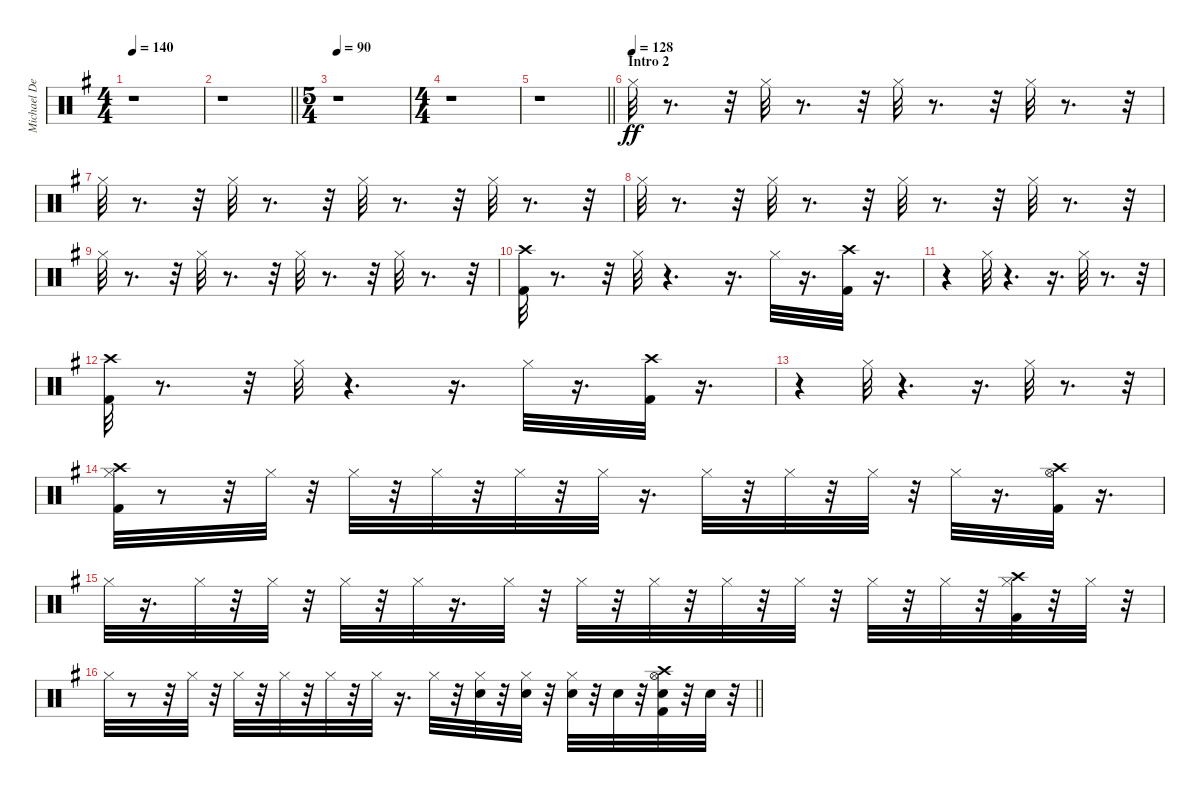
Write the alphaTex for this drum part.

\track ("Michael DeRosier" "Michael De") {instrument percussion}
\staff {score}
\articulation defaults
\ts (4 4)
\tempo 140
\clef neutral
\ks g
r.1{dy ff} |
\barLineRight lightlight
r.1 |
\ts (5 4)
\tempo 90
r.1 |
\ts (4 4)
r.1 |
\barLineRight lightlight
r.1 |
\section ("" "Intro 2")
\tempo (128)
"Hi-Hat (closed)".32 r.8{d} r.32 "Hi-Hat (closed)".32 r.8{d} r.32 "Hi-Hat (closed)".32 r.8{d} r.32 "Hi-Hat (closed)".32 r.8{d} r.32 |
"Hi-Hat (closed)".32 r.8{d} r.32 "Hi-Hat (closed)".32 r.8{d} r.32 "Hi-Hat (closed)".32 r.8{d} r.32 "Hi-Hat (closed)".32 r.8{d} r.32 |
"Hi-Hat (closed)".32 r.8{d} r.32 "Hi-Hat (closed)".32 r.8{d} r.32 "Hi-Hat (closed)".32 r.8{d} r.32 "Hi-Hat (closed)".32 r.8{d} r.32 |
"Hi-Hat (closed)".32 r.8{d} r.32 "Hi-Hat (closed)".32 r.8{d} r.32 "Hi-Hat (closed)".32 r.8{d} r.32 "Hi-Hat (closed)".32 r.8{d} r.32 |
("Kick (hit) 2" "Crash high (hit)").32 r.8{d} r.32 "Hi-Hat (closed)".32 r.4{d} r.16{d} "Hi-Hat (closed)".32 r.16{d} ("Kick (hit) 2" "Crash high (hit)").32 r.16{d} |
r.4 "Hi-Hat (closed)".32 r.4{d} r.16{d} "Hi-Hat (closed)".32 r.8{d} r.32 |
("Kick (hit) 2" "Crash high (hit)").32 r.8{d} r.32 "Hi-Hat (closed)".32 r.4{d} r.16{d} "Hi-Hat (closed)".32 r.16{d} ("Kick (hit) 2" "Crash high (hit)").32 r.16{d} |
r.4 "Hi-Hat (closed)".32 r.4{d} r.16{d} "Hi-Hat (closed)".32 r.8{d} r.32 |
("Kick (hit) 2" "Hi-Hat (closed)" "Crash high (hit)").32 r.8 r.32 "Hi-Hat (closed)".32 r.32 "Hi-Hat (closed)".32 r.32 "Hi-Hat (closed)".32 r.32 "Hi-Hat (closed)".32 r.32 "Hi-Hat (closed)".32 r.16{d} "Hi-Hat (closed)".32 r.32 "Hi-Hat (closed)".32 r.32 "Hi-Hat (closed)".32 r.32 "Hi-Hat (closed)".32 r.16{d} ("Kick (hit) 2" "Crash high (hit)" "Hi-Hat (open)").32 r.16{d} |
"Hi-Hat (closed)".32 r.16{d} "Hi-Hat (closed)".32 r.32 "Hi-Hat (closed)".32 r.32 "Hi-Hat (closed)".32 r.32 "Hi-Hat (closed)".32 r.16{d} "Hi-Hat (closed)".32 r.32 "Hi-Hat (closed)".32 r.32 "Hi-Hat (closed)".32 r.32 "Hi-Hat (closed)".32 r.32 "Hi-Hat (closed)".32 r.32 "Hi-Hat (closed)".32 r.32 "Hi-Hat (closed)".32 r.32 ("Kick (hit) 2" "Hi-Hat (closed)" "Crash high (hit)").32 r.32 "Hi-Hat (closed)".32 r.32 |
\barLineRight lightlight "Hi-Hat (closed)".32
r.8 r.32 "Hi-Hat (closed)".32 r.32 "Hi-Hat (closed)".32 r.32 "Hi-Hat (closed)".32 r.32 "Hi-Hat (closed)".32 r.32 "Hi-Hat (closed)".32 r.16{d} "Hi-Hat (closed)".32 r.32 ("Snare (hit) 2" "Hi-Hat (closed)").32 r.32 ("Snare (hit) 2" "Hi-Hat (closed)").32 r.32 ("Snare (hit) 2" "Hi-Hat (closed)").32 r.32 "Snare (hit) 2".32 r.32 ("Kick (hit) 2" "Snare (hit) 2" "Crash high (hit)" "Hi-Hat (open)").32 r.32 "Snare (hit) 2".32 r.32
